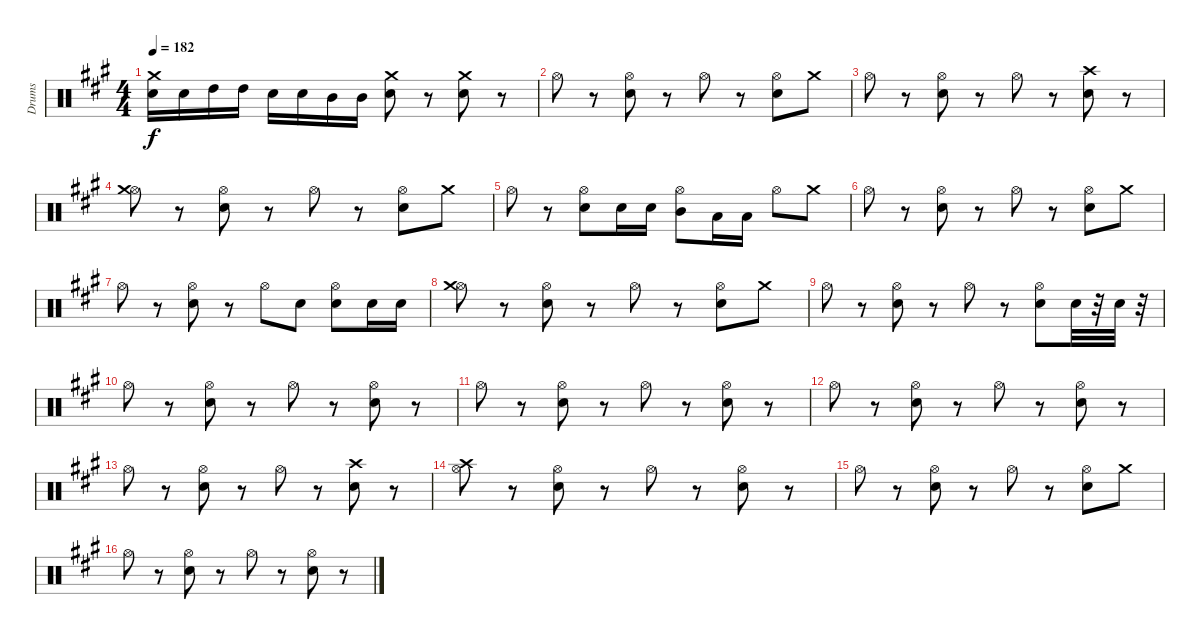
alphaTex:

\track ("Drums" "Drums") {instrument percussion}
\staff {score}
\articulation defaults
\ts (4 4)
\tempo 182
\clef neutral
\ks f#minor
("Crash medium (hit)" "Snare (hit) 2").16{dy f} "Snare (hit) 2".16 "High Tom (hit)".16 "High Tom (hit)".16 "Snare (hit) 2".16 "Snare (hit) 2".16 "Mid Tom (hit)".16 "Mid Tom (hit)".16 ("Crash medium (hit)" "Snare (hit) 2").8 r.8 ("Crash medium (hit)" "Snare (hit) 2").8 r.8 |
"Hi-Hat (open)".8 r.8 ("Hi-Hat (open)" "Snare (hit) 2").8 r.8 "Hi-Hat (open)".8 r.8 ("Hi-Hat (open)" "Snare (hit) 2").8 "Crash medium (hit)".8 |
"Hi-Hat (open)".8 r.8 ("Hi-Hat (open)" "Snare (hit) 2").8 r.8 "Hi-Hat (open)".8 r.8 ("Crash high (hit)" "Snare (hit) 2").8 r.8 |
("Hi-Hat (open)" "Crash medium (hit)").8 r.8 ("Hi-Hat (open)" "Snare (hit) 2").8 r.8 "Hi-Hat (open)".8 r.8 ("Hi-Hat (open)" "Snare (hit) 2").8 "Crash medium (hit)".8 |
"Hi-Hat (open)".8 r.8 ("Hi-Hat (open)" "Snare (hit) 2").8 "Snare (hit) 2".16 "Snare (hit) 2".16 ("Mid Tom (hit)" "Hi-Hat (open)").8 "Low Tom (hit)".16 "Low Tom (hit)".16 "Hi-Hat (open)".8 "Crash medium (hit)".8 |
"Hi-Hat (open)".8 r.8 ("Hi-Hat (open)" "Snare (hit) 2").8 r.8 "Hi-Hat (open)".8 r.8 ("Hi-Hat (open)" "Snare (hit) 2").8 "Crash medium (hit)".8 |
"Hi-Hat (open)".8 r.8 ("Hi-Hat (open)" "Snare (hit) 2").8 r.8 "Hi-Hat (open)".8 "Snare (hit) 2".8 ("Hi-Hat (open)" "Snare (hit) 2").8 "Snare (hit) 2".16 "Snare (hit) 2".16 |
("Hi-Hat (open)" "Crash medium (hit)").8 r.8 ("Hi-Hat (open)" "Snare (hit) 2").8 r.8 "Hi-Hat (open)".8 r.8 ("Hi-Hat (open)" "Snare (hit) 2").8 "Crash medium (hit)".8 |
"Hi-Hat (open)".8 r.8 ("Hi-Hat (open)" "Snare (hit) 2").8 r.8 "Hi-Hat (open)".8 r.8 ("Hi-Hat (open)" "Snare (hit) 2").8 "Snare (hit) 2".32 r.32 "Snare (hit) 2".32 r.32 |
"Hi-Hat (open)".8 r.8 ("Hi-Hat (open)" "Snare (hit) 2").8 r.8 "Hi-Hat (open)".8 r.8 ("Hi-Hat (open)" "Snare (hit) 2").8 r.8 |
"Hi-Hat (open)".8 r.8 ("Hi-Hat (open)" "Snare (hit) 2").8 r.8 "Hi-Hat (open)".8 r.8 ("Hi-Hat (open)" "Snare (hit) 2").8 r.8 |
"Hi-Hat (open)".8 r.8 ("Hi-Hat (open)" "Snare (hit) 2").8 r.8 "Hi-Hat (open)".8 r.8 ("Hi-Hat (open)" "Snare (hit) 2").8 r.8 |
"Hi-Hat (open)".8 r.8 ("Hi-Hat (open)" "Snare (hit) 2").8 r.8 "Hi-Hat (open)".8 r.8 ("Crash high (hit)" "Snare (hit) 2").8 r.8 |
("Hi-Hat (open)" "Crash high (hit)").8 r.8 ("Hi-Hat (open)" "Snare (hit) 2").8 r.8 "Hi-Hat (open)".8 r.8 ("Hi-Hat (open)" "Snare (hit) 2").8 r.8 |
"Hi-Hat (open)".8 r.8 ("Hi-Hat (open)" "Snare (hit) 2").8 r.8 "Hi-Hat (open)".8 r.8 ("Hi-Hat (open)" "Snare (hit) 2").8 "Crash medium (hit)".8 |
"Hi-Hat (open)".8 r.8 ("Hi-Hat (open)" "Snare (hit) 2").8 r.8 "Hi-Hat (open)".8 r.8 ("Hi-Hat (open)" "Snare (hit) 2").8 r.8
